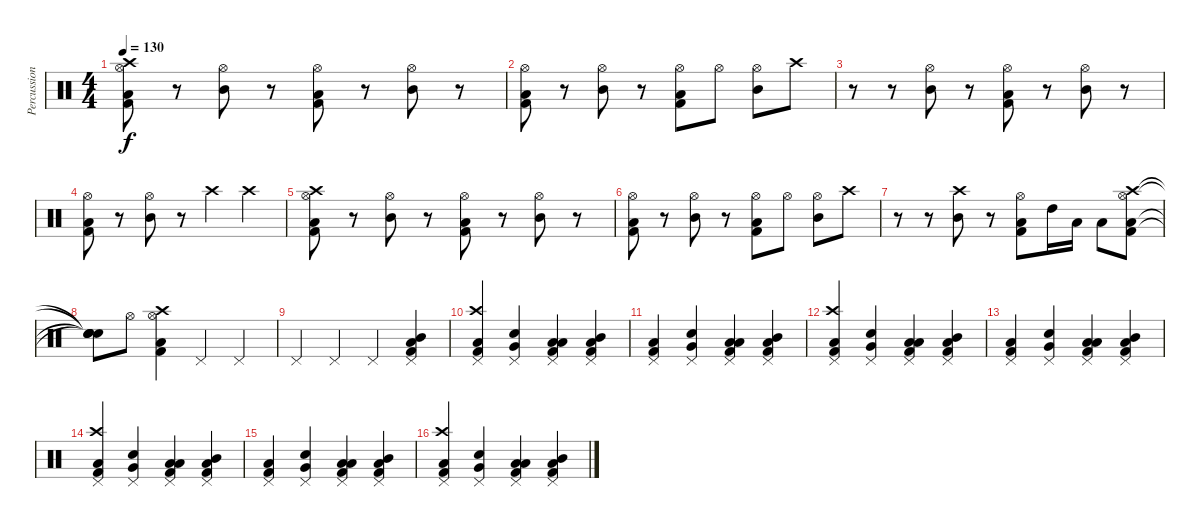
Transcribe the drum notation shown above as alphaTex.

\track ("Percussion" "Percussion") {instrument percussion}
\staff {score}
\articulation defaults
\ts (4 4)
\tempo 130
\clef neutral
\ks c
("Hi-Hat (open)" "Kick (hit) 2" "Crash high (hit)" "Low Floor Tom (hit)").8{dy f} r.8 ("Hi-Hat (open)" "Mid Tom (hit)").8 r.8 ("Hi-Hat (open)" "Kick (hit) 2" "Low Floor Tom (hit)").8 r.8 ("Hi-Hat (open)" "Mid Tom (hit)").8 r.8 |
("Hi-Hat (open)" "Kick (hit) 2" "Low Floor Tom (hit)").8 r.8 ("Hi-Hat (open)" "Mid Tom (hit)").8 r.8 ("Hi-Hat (open)" "Kick (hit) 2" "Low Floor Tom (hit)").8 "Hi-Hat (open)".8 ("Hi-Hat (open)" "Mid Tom (hit)").8 "Crash high (hit)".8 |
r.8 r.8 ("Hi-Hat (open)" "Mid Tom (hit)").8 r.8 ("Hi-Hat (open)" "Kick (hit) 2" "Low Floor Tom (hit)").8 r.8 ("Hi-Hat (open)" "Mid Tom (hit)").8 r.8 |
("Hi-Hat (open)" "Kick (hit) 2" "Low Floor Tom (hit)").8 r.8 ("Hi-Hat (open)" "Mid Tom (hit)").8 r.8 "Crash high (hit)".4 "Crash high (hit)".4 |
("Hi-Hat (open)" "Kick (hit) 2" "Crash high (hit)" "Low Floor Tom (hit)").8 r.8 ("Hi-Hat (open)" "Mid Tom (hit)").8 r.8 ("Hi-Hat (open)" "Kick (hit) 2" "Low Floor Tom (hit)").8 r.8 ("Hi-Hat (open)" "Mid Tom (hit)").8 r.8 |
("Hi-Hat (open)" "Kick (hit) 2" "Low Floor Tom (hit)").8 r.8 ("Hi-Hat (open)" "Mid Tom (hit)").8 r.8 ("Hi-Hat (open)" "Kick (hit) 2" "Low Floor Tom (hit)").8 "Hi-Hat (open)".8 ("Hi-Hat (open)" "Mid Tom (hit)").8 "Crash high (hit)".8 |
r.8 r.8 ("Crash high (hit)" "Mid Tom (hit)").8 r.8 ("Hi-Hat (open)" "Kick (hit) 2" "Low Floor Tom (hit)").8 "High Tom (hit)".16 "Low Tom (hit)".16 "Low Floor Tom (hit)".8 ("Hi-Hat (open)" "Kick (hit) 2" "Crash high (hit)" "Low Floor Tom (hit)").8 |
("Snare (hit)"{t} "Snare (hit)"{t} "Snare (hit)"{t} "Snare (hit)"{t}).8 "Hi-Hat (open)".8 ("Hi-Hat (open)" "Kick (hit) 2" "Crash high (hit)" "Low Floor Tom (hit)").4 "Pedal Hi-Hat (hit)".4 "Pedal Hi-Hat (hit)".4 |
"Pedal Hi-Hat (hit)".4 "Pedal Hi-Hat (hit)".4 "Pedal Hi-Hat (hit)".4 ("Pedal Hi-Hat (hit)" "Mid Tom (hit)" "Kick (hit) 2" "Low Floor Tom (hit)").4 |
("Pedal Hi-Hat (hit)" "Crash high (hit)" "Kick (hit) 2" "Low Floor Tom (hit)").4 ("Pedal Hi-Hat (hit)" "Very Low Tom (hit)" "Snare (hit) 2").4 ("Pedal Hi-Hat (hit)" "Low Floor Tom (hit)" "Kick (hit) 2" "Low Tom (hit)").4 ("Pedal Hi-Hat (hit)" "Low Tom (hit)" "Kick (hit) 2" "Mid Tom (hit)").4 |
("Pedal Hi-Hat (hit)" "Kick (hit) 2" "Low Floor Tom (hit)").4 ("Pedal Hi-Hat (hit)" "Very Low Tom (hit)" "Snare (hit) 2").4 ("Pedal Hi-Hat (hit)" "Low Floor Tom (hit)" "Kick (hit) 2" "Low Tom (hit)").4 ("Pedal Hi-Hat (hit)" "Low Tom (hit)" "Kick (hit) 2" "Mid Tom (hit)").4 |
("Pedal Hi-Hat (hit)" "Crash high (hit)" "Kick (hit) 2" "Low Floor Tom (hit)").4 ("Pedal Hi-Hat (hit)" "Very Low Tom (hit)" "Snare (hit) 2").4 ("Pedal Hi-Hat (hit)" "Low Floor Tom (hit)" "Kick (hit) 2" "Low Tom (hit)").4 ("Pedal Hi-Hat (hit)" "Low Tom (hit)" "Kick (hit) 2" "Mid Tom (hit)").4 |
("Pedal Hi-Hat (hit)" "Kick (hit) 2" "Low Floor Tom (hit)").4 ("Pedal Hi-Hat (hit)" "Very Low Tom (hit)" "Snare (hit) 2").4 ("Pedal Hi-Hat (hit)" "Low Floor Tom (hit)" "Kick (hit) 2" "Low Tom (hit)").4 ("Pedal Hi-Hat (hit)" "Low Tom (hit)" "Kick (hit) 2" "Mid Tom (hit)").4 |
("Pedal Hi-Hat (hit)" "Crash high (hit)" "Kick (hit) 2" "Low Floor Tom (hit)").4 ("Pedal Hi-Hat (hit)" "Very Low Tom (hit)" "Snare (hit) 2").4 ("Pedal Hi-Hat (hit)" "Low Floor Tom (hit)" "Kick (hit) 2" "Low Tom (hit)").4 ("Pedal Hi-Hat (hit)" "Low Tom (hit)" "Kick (hit) 2" "Mid Tom (hit)").4 |
("Pedal Hi-Hat (hit)" "Kick (hit) 2" "Low Floor Tom (hit)").4 ("Pedal Hi-Hat (hit)" "Very Low Tom (hit)" "Snare (hit) 2").4 ("Pedal Hi-Hat (hit)" "Low Floor Tom (hit)" "Kick (hit) 2" "Low Tom (hit)").4 ("Pedal Hi-Hat (hit)" "Low Tom (hit)" "Kick (hit) 2" "Mid Tom (hit)").4 |
("Pedal Hi-Hat (hit)" "Crash high (hit)" "Kick (hit) 2" "Low Floor Tom (hit)").4 ("Pedal Hi-Hat (hit)" "Very Low Tom (hit)" "Snare (hit) 2").4 ("Pedal Hi-Hat (hit)" "Low Floor Tom (hit)" "Kick (hit) 2" "Low Tom (hit)").4 ("Pedal Hi-Hat (hit)" "Low Tom (hit)" "Kick (hit) 2" "Mid Tom (hit)").4
